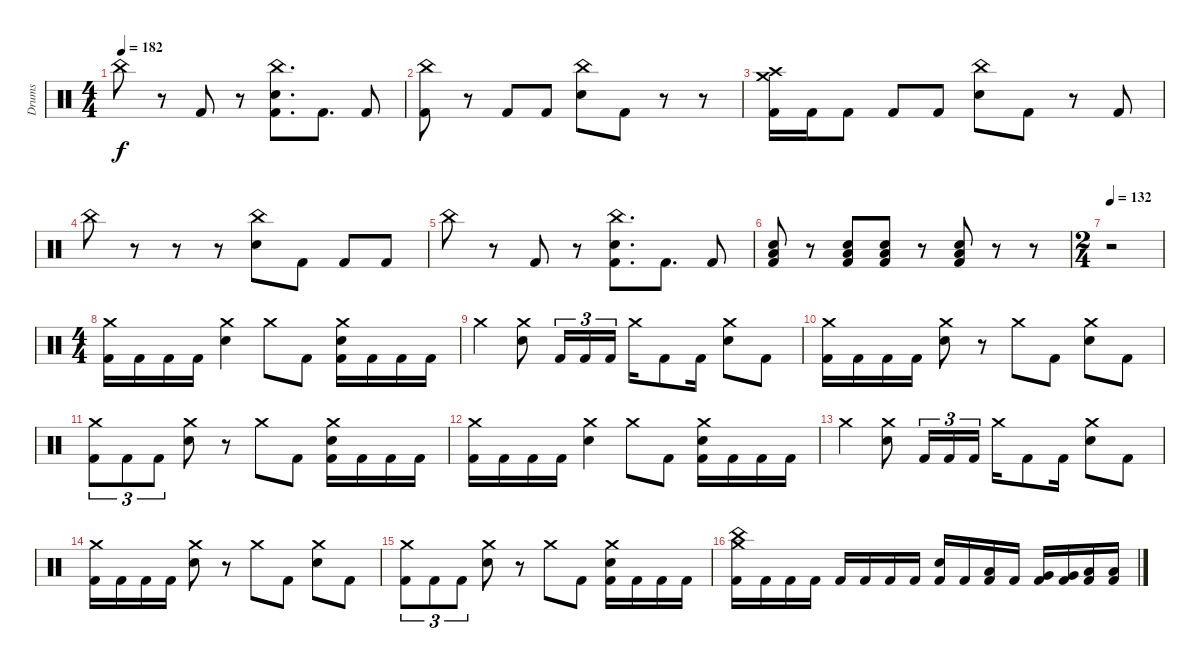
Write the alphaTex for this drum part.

\track ("Drums" "Drums") {instrument percussion}
\staff {score}
\articulation defaults
\ts (4 4)
\tempo 182
\clef neutral
\ks c "China (hit)".8{dy f}
r.8 "Kick (hit) 2".8 r.8 ("China (hit)" "Electric Snare (hit)" "Kick (hit) 2").8{d} "Kick (hit) 2".8{d} "Kick (hit) 2".8 |
("China (hit)" "Kick (hit) 2").8 r.8 "Kick (hit) 2".8 "Kick (hit) 2".8 ("China (hit)" "Electric Snare (hit)").8 "Kick (hit) 2".8 r.8 r.8 |
("Crash medium (hit)" "Crash high (hit)" "Kick (hit) 2").16 "Kick (hit) 2".16 "Kick (hit) 2".8 "Kick (hit) 2".8 "Kick (hit) 2".8 ("China (hit)" "Electric Snare (hit)").8 "Kick (hit) 2".8 r.8 "Kick (hit) 2".8 |
"China (hit)".8 r.8 r.8 r.8 ("China (hit)" "Electric Snare (hit)").8 "Kick (hit) 2".8 "Kick (hit) 2".8 "Kick (hit) 2".8 |
"China (hit)".8 r.8 "Kick (hit) 2".8 r.8 ("China (hit)" "Electric Snare (hit)" "Kick (hit) 2").8{d} "Kick (hit) 2".8{d} "Kick (hit) 2".8 |
("Low Floor Tom (hit)" "Electric Snare (hit)" "Kick (hit) 2").8 r.8 ("Low Floor Tom (hit)" "Electric Snare (hit)" "Kick (hit) 2").8 ("Low Floor Tom (hit)" "Electric Snare (hit)" "Kick (hit) 2").8 r.8 ("Low Floor Tom (hit)" "Electric Snare (hit)" "Kick (hit) 2").8 r.8 r.8 |
\ts (2 4)
\tempo 132
r.2 |
\ts (4 4)
("Crash medium (hit)" "Kick (hit) 2").16 "Kick (hit) 2".16 "Kick (hit) 2".16 "Kick (hit) 2".16 ("Crash medium (hit)" "Electric Snare (hit)").4 "Crash medium (hit)".8 "Kick (hit) 2".8 ("Crash medium (hit)" "Electric Snare (hit)" "Kick (hit) 2").16 "Kick (hit) 2".16 "Kick (hit) 2".16 "Kick (hit) 2".16 |
"Crash medium (hit)".4 ("Crash medium (hit)" "Electric Snare (hit)").8 "Kick (hit) 2".16{tu (3 2)} "Kick (hit) 2".16{tu (3 2)} "Kick (hit) 2".16{tu (3 2)} "Crash medium (hit)".16 "Kick (hit) 2".8 "Kick (hit) 2".16 ("Crash medium (hit)" "Electric Snare (hit)").8 "Kick (hit) 2".8 |
("Crash medium (hit)" "Kick (hit) 2").16 "Kick (hit) 2".16 "Kick (hit) 2".16 "Kick (hit) 2".16 ("Crash medium (hit)" "Electric Snare (hit)").8 r.8 "Crash medium (hit)".8 "Kick (hit) 2".8 ("Crash medium (hit)" "Electric Snare (hit)").8 "Kick (hit) 2".8 |
("Crash medium (hit)" "Kick (hit) 2").8{tu (3 2)} "Kick (hit) 2".8{tu (3 2)} "Kick (hit) 2".8{tu (3 2)} ("Crash medium (hit)" "Electric Snare (hit)").8 r.8 "Crash medium (hit)".8 "Kick (hit) 2".8 ("Crash medium (hit)" "Electric Snare (hit)" "Kick (hit) 2").16 "Kick (hit) 2".16 "Kick (hit) 2".16 "Kick (hit) 2".16 |
("Crash medium (hit)" "Kick (hit) 2").16 "Kick (hit) 2".16 "Kick (hit) 2".16 "Kick (hit) 2".16 ("Crash medium (hit)" "Electric Snare (hit)").4 "Crash medium (hit)".8 "Kick (hit) 2".8 ("Crash medium (hit)" "Electric Snare (hit)" "Kick (hit) 2").16 "Kick (hit) 2".16 "Kick (hit) 2".16 "Kick (hit) 2".16 |
"Crash medium (hit)".4 ("Crash medium (hit)" "Electric Snare (hit)").8 "Kick (hit) 2".16{tu (3 2)} "Kick (hit) 2".16{tu (3 2)} "Kick (hit) 2".16{tu (3 2)} "Crash medium (hit)".16 "Kick (hit) 2".8 "Kick (hit) 2".16 ("Crash medium (hit)" "Electric Snare (hit)").8 "Kick (hit) 2".8 |
("Crash medium (hit)" "Kick (hit) 2").16 "Kick (hit) 2".16 "Kick (hit) 2".16 "Kick (hit) 2".16 ("Crash medium (hit)" "Electric Snare (hit)").8 r.8 "Crash medium (hit)".8 "Kick (hit) 2".8 ("Crash medium (hit)" "Electric Snare (hit)").8 "Kick (hit) 2".8 |
("Crash medium (hit)" "Kick (hit) 2").8{tu (3 2)} "Kick (hit) 2".8{tu (3 2)} "Kick (hit) 2".8{tu (3 2)} ("Crash medium (hit)" "Electric Snare (hit)").8 r.8 "Crash medium (hit)".8 "Kick (hit) 2".8 ("Crash medium (hit)" "Electric Snare (hit)" "Kick (hit) 2").16 "Kick (hit) 2".16 "Kick (hit) 2".16 "Kick (hit) 2".16 |
("China (hit)" "Crash medium (hit)" "Kick (hit) 2").16 "Kick (hit) 2".16 "Kick (hit) 2".16 "Kick (hit) 2".16 "Kick (hit) 2".16 "Kick (hit) 2".16 "Kick (hit) 2".16 "Kick (hit) 2".16 ("Electric Snare (hit)" "Kick (hit) 2").16 "Kick (hit) 2".16 ("Low Tom (hit)" "Kick (hit) 2").16 "Kick (hit) 2".16 ("Very Low Tom (hit)" "Kick (hit) 2").16 ("Very Low Tom (hit)" "Kick (hit) 2").16 ("Low Floor Tom (hit)" "Kick (hit) 2").16 ("Low Floor Tom (hit)" "Kick (hit) 2").16
